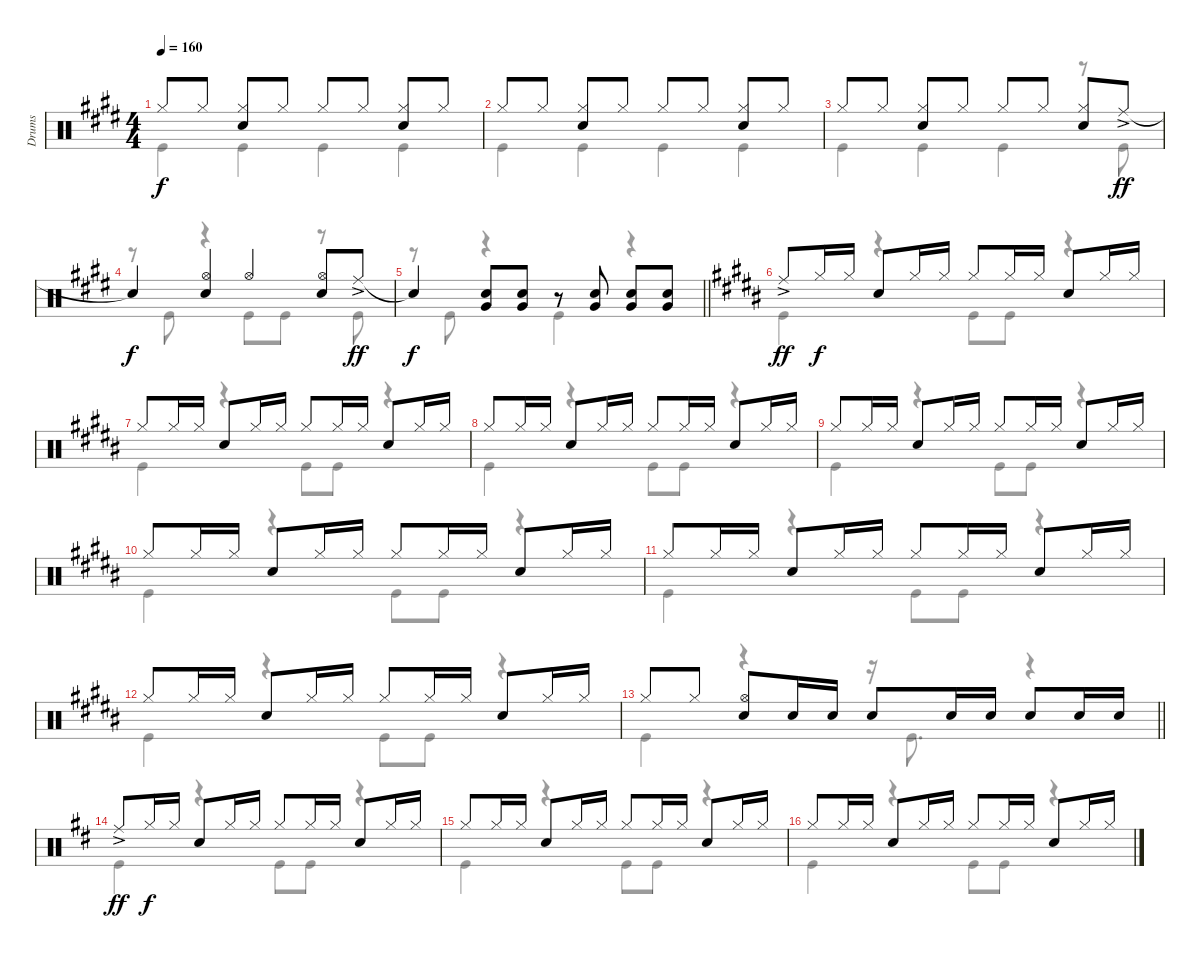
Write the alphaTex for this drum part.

\track ("Drums" "Drums") {instrument percussion}
\staff {score}
\articulation defaults
\voice
\ts (4 4)
\tempo 160
\clef neutral
\ks e "Hi-Hat (closed)".8{dy f} "Hi-Hat (closed)".8
("Hi-Hat (closed)" "Snare (hit) 2").8 "Hi-Hat (closed)".8 "Hi-Hat (closed)".8 "Hi-Hat (closed)".8 ("Hi-Hat (closed)" "Snare (hit) 2").8 "Hi-Hat (closed)".8 |
"Hi-Hat (closed)".8 "Hi-Hat (closed)".8 ("Hi-Hat (closed)" "Snare (hit) 2").8 "Hi-Hat (closed)".8 "Hi-Hat (closed)".8 "Hi-Hat (closed)".8 ("Hi-Hat (closed)" "Snare (hit) 2").8 "Hi-Hat (closed)".8 |
"Hi-Hat (closed)".8 "Hi-Hat (closed)".8 ("Hi-Hat (closed)" "Snare (hit) 2").8 "Hi-Hat (closed)".8 "Hi-Hat (closed)".8 "Hi-Hat (closed)".8 ("Hi-Hat (closed)" "Snare (hit) 2").8 "Ride (middle)"{ac}.8{dy ff} |
"Snare (hit)"{t}.4{dy f} ("Hi-Hat (open)" "Snare (hit) 2").4 "Hi-Hat (open)".4 ("Hi-Hat (open)" "Snare (hit) 2").8 "Ride (middle)"{ac}.8{dy ff} |
\barLineRight lightlight "Snare (hit)"{t}.4{dy f}
("Snare (hit) 2" "Very Low Tom (hit)").8 ("Snare (hit) 2" "Very Low Tom (hit)").8 r.8 ("Snare (hit) 2" "Very Low Tom (hit)").8 ("Snare (hit) 2" "Very Low Tom (hit)").8 ("Snare (hit) 2" "Very Low Tom (hit)").8 |
\ks b "Ride (middle)"{ac}.8{dy ff} "Hi-Hat (closed)".16{dy f} "Hi-Hat (closed)".16 "Snare (hit) 2".8 "Hi-Hat (closed)".16 "Hi-Hat (closed)".16 "Hi-Hat (closed)".8 "Hi-Hat (closed)".16 "Hi-Hat (closed)".16 "Snare (hit) 2".8 "Hi-Hat (closed)".16 "Hi-Hat (closed)".16
|
"Hi-Hat (closed)".8 "Hi-Hat (closed)".16 "Hi-Hat (closed)".16 "Snare (hit) 2".8 "Hi-Hat (closed)".16 "Hi-Hat (closed)".16 "Hi-Hat (closed)".8 "Hi-Hat (closed)".16 "Hi-Hat (closed)".16 "Snare (hit) 2".8 "Hi-Hat (closed)".16 "Hi-Hat (closed)".16 |
"Hi-Hat (closed)".8 "Hi-Hat (closed)".16 "Hi-Hat (closed)".16 "Snare (hit) 2".8 "Hi-Hat (closed)".16 "Hi-Hat (closed)".16 "Hi-Hat (closed)".8 "Hi-Hat (closed)".16 "Hi-Hat (closed)".16 "Snare (hit) 2".8 "Hi-Hat (closed)".16 "Hi-Hat (closed)".16 |
"Hi-Hat (closed)".8 "Hi-Hat (closed)".16 "Hi-Hat (closed)".16 "Snare (hit) 2".8 "Hi-Hat (closed)".16 "Hi-Hat (closed)".16 "Hi-Hat (closed)".8 "Hi-Hat (closed)".16 "Hi-Hat (closed)".16 "Snare (hit) 2".8 "Hi-Hat (closed)".16 "Hi-Hat (closed)".16 |
"Hi-Hat (closed)".8 "Hi-Hat (closed)".16 "Hi-Hat (closed)".16 "Snare (hit) 2".8 "Hi-Hat (closed)".16 "Hi-Hat (closed)".16 "Hi-Hat (closed)".8 "Hi-Hat (closed)".16 "Hi-Hat (closed)".16 "Snare (hit) 2".8 "Hi-Hat (closed)".16 "Hi-Hat (closed)".16 |
"Hi-Hat (closed)".8 "Hi-Hat (closed)".16 "Hi-Hat (closed)".16 "Snare (hit) 2".8 "Hi-Hat (closed)".16 "Hi-Hat (closed)".16 "Hi-Hat (closed)".8 "Hi-Hat (closed)".16 "Hi-Hat (closed)".16 "Snare (hit) 2".8 "Hi-Hat (closed)".16 "Hi-Hat (closed)".16 |
"Hi-Hat (closed)".8 "Hi-Hat (closed)".16 "Hi-Hat (closed)".16 "Snare (hit) 2".8 "Hi-Hat (closed)".16 "Hi-Hat (closed)".16 "Hi-Hat (closed)".8 "Hi-Hat (closed)".16 "Hi-Hat (closed)".16 "Snare (hit) 2".8 "Hi-Hat (closed)".16 "Hi-Hat (closed)".16 |
\barLineRight lightlight "Hi-Hat (closed)".8 "Hi-Hat (closed)".8
("Hi-Hat (open)" "Snare (hit) 2").8 "Snare (hit) 2".16 "Snare (hit) 2".16 "Snare (hit) 2".8 "Snare (hit) 2".16 "Snare (hit) 2".16 "Snare (hit) 2".8 "Snare (hit) 2".16 "Snare (hit) 2".16 |
\ks d "Ride (middle)"{ac}.8{dy ff} "Hi-Hat (closed)".16{dy f} "Hi-Hat (closed)".16 "Snare (hit) 2".8 "Hi-Hat (closed)".16 "Hi-Hat (closed)".16 "Hi-Hat (closed)".8 "Hi-Hat (closed)".16 "Hi-Hat (closed)".16 "Snare (hit) 2".8 "Hi-Hat (closed)".16 "Hi-Hat (closed)".16
|
"Hi-Hat (closed)".8 "Hi-Hat (closed)".16 "Hi-Hat (closed)".16 "Snare (hit) 2".8 "Hi-Hat (closed)".16 "Hi-Hat (closed)".16 "Hi-Hat (closed)".8 "Hi-Hat (closed)".16 "Hi-Hat (closed)".16 "Snare (hit) 2".8 "Hi-Hat (closed)".16 "Hi-Hat (closed)".16 |
"Hi-Hat (closed)".8 "Hi-Hat (closed)".16 "Hi-Hat (closed)".16 "Snare (hit) 2".8 "Hi-Hat (closed)".16 "Hi-Hat (closed)".16 "Hi-Hat (closed)".8 "Hi-Hat (closed)".16 "Hi-Hat (closed)".16 "Snare (hit) 2".8 "Hi-Hat (closed)".16 "Hi-Hat (closed)".16
\voice
\clef neutral
\ottava regular
\simile none
\ks e "Kick (hit)".4{dy f} "Kick (hit)".4 "Kick (hit)".4 "Kick (hit)".4
|
"Kick (hit)".4 "Kick (hit)".4 "Kick (hit)".4 "Kick (hit)".4 |
"Kick (hit)".4 "Kick (hit)".4 "Kick (hit)".4 r.8 "Kick (hit)".8 |
r.8 "Kick (hit)".8 r.4 "Kick (hit)".8 "Kick (hit)".8 r.8 "Kick (hit)".8 |
\barLineRight lightlight
r.8 "Kick (hit)".8 r.4 "Kick (hit)".4 r.4 |
\ks b "Kick (hit)".4
r.4 "Kick (hit)".8 "Kick (hit)".8 r.4 |
"Kick (hit)".4 r.4 "Kick (hit)".8 "Kick (hit)".8 r.4 |
"Kick (hit)".4 r.4 "Kick (hit)".8 "Kick (hit)".8 r.4 |
"Kick (hit)".4 r.4 "Kick (hit)".8 "Kick (hit)".8 r.4 |
"Kick (hit)".4 r.4 "Kick (hit)".8 "Kick (hit)".8 r.4 |
"Kick (hit)".4 r.4 "Kick (hit)".8 "Kick (hit)".8 r.4 |
"Kick (hit)".4 r.4 "Kick (hit)".8 "Kick (hit)".8 r.4 |
\barLineRight lightlight "Kick (hit)".4
r.4 r.16 "Kick (hit)".8{d} r.4 |
\ks d "Kick (hit)".4
r.4 "Kick (hit)".8 "Kick (hit)".8 r.4 |
"Kick (hit)".4 r.4 "Kick (hit)".8 "Kick (hit)".8 r.4 |
"Kick (hit)".4 r.4 "Kick (hit)".8 "Kick (hit)".8 r.4
